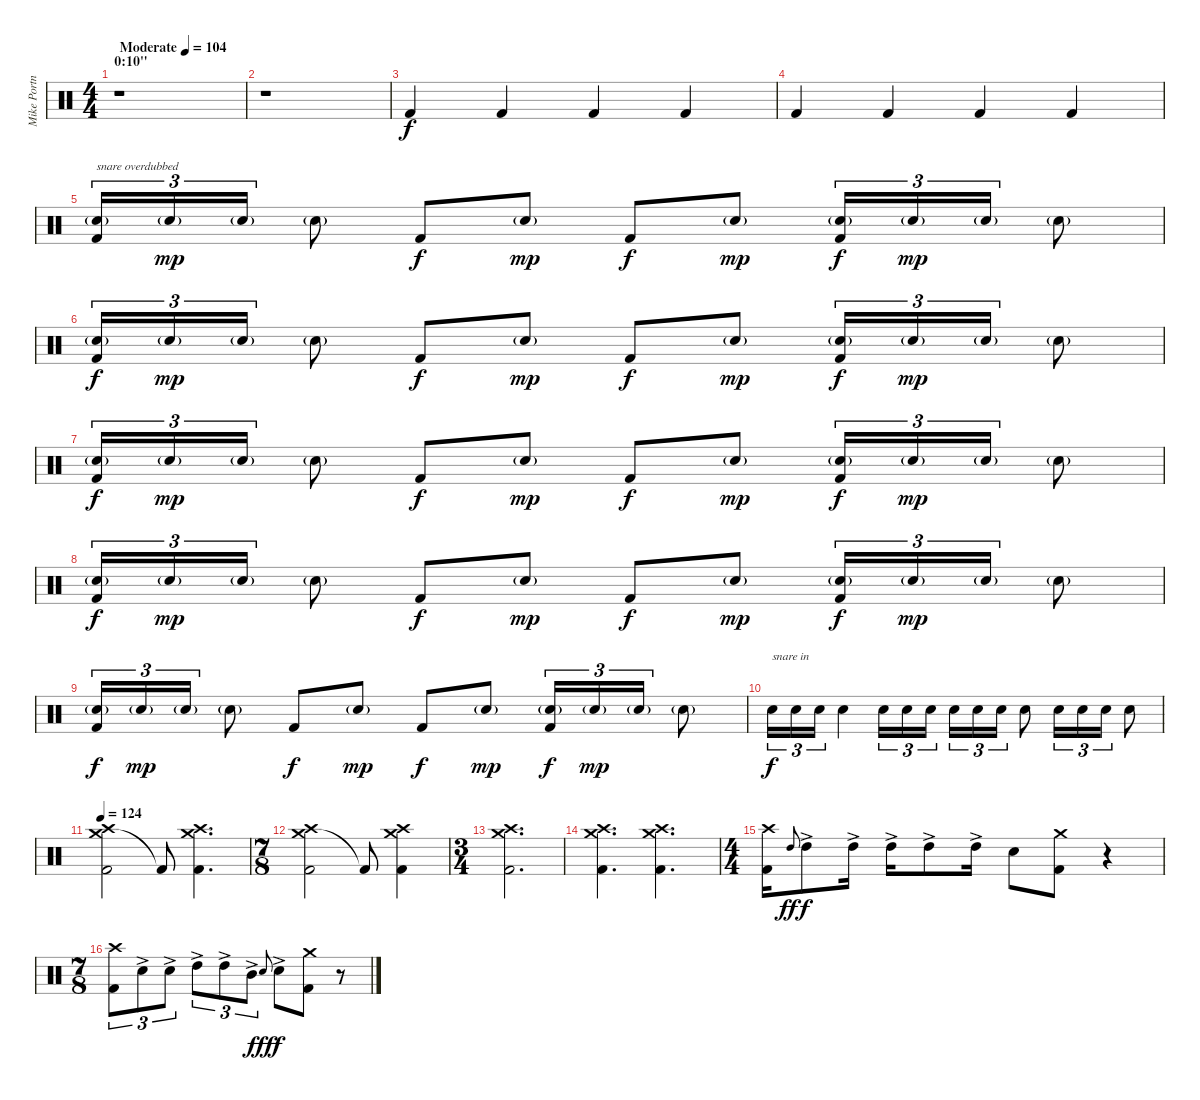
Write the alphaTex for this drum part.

\track ("Mike Portnoy" "Mike Portn") {instrument percussion}
\staff {score}
\articulation defaults
\ts (4 4)
\section ("" "0:10''")
\tempo (104 "Moderate")
\clef neutral
\ks c
r.1{dy f} |
r.1 |
"Kick (hit) 2".4 "Kick (hit) 2".4 "Kick (hit) 2".4 "Kick (hit) 2".4 |
"Kick (hit) 2".4 "Kick (hit) 2".4 "Kick (hit) 2".4 "Kick (hit) 2".4 |
("Snare (hit) 2"{g} "Kick (hit) 2").16{tu (3 2) txt "snare overdubbed"} "Snare (hit) 2"{g}.16{tu (3 2) dy mp} "Snare (hit) 2"{g}.16{tu (3 2)} "Snare (hit) 2"{g}.8 "Kick (hit) 2".8{dy f} "Snare (hit) 2"{g}.8{dy mp} "Kick (hit) 2".8{dy f} "Snare (hit) 2"{g}.8{dy mp} ("Snare (hit) 2"{g} "Kick (hit) 2").16{tu (3 2) dy f} "Snare (hit) 2"{g}.16{tu (3 2) dy mp} "Snare (hit) 2"{g}.16{tu (3 2)} "Snare (hit) 2"{g}.8 |
("Snare (hit) 2"{g} "Kick (hit) 2").16{tu (3 2) dy f} "Snare (hit) 2"{g}.16{tu (3 2) dy mp} "Snare (hit) 2"{g}.16{tu (3 2)} "Snare (hit) 2"{g}.8 "Kick (hit) 2".8{dy f} "Snare (hit) 2"{g}.8{dy mp} "Kick (hit) 2".8{dy f} "Snare (hit) 2"{g}.8{dy mp} ("Snare (hit) 2"{g} "Kick (hit) 2").16{tu (3 2) dy f} "Snare (hit) 2"{g}.16{tu (3 2) dy mp} "Snare (hit) 2"{g}.16{tu (3 2)} "Snare (hit) 2"{g}.8 |
("Snare (hit) 2"{g} "Kick (hit) 2").16{tu (3 2) dy f} "Snare (hit) 2"{g}.16{tu (3 2) dy mp} "Snare (hit) 2"{g}.16{tu (3 2)} "Snare (hit) 2"{g}.8 "Kick (hit) 2".8{dy f} "Snare (hit) 2"{g}.8{dy mp} "Kick (hit) 2".8{dy f} "Snare (hit) 2"{g}.8{dy mp} ("Snare (hit) 2"{g} "Kick (hit) 2").16{tu (3 2) dy f} "Snare (hit) 2"{g}.16{tu (3 2) dy mp} "Snare (hit) 2"{g}.16{tu (3 2)} "Snare (hit) 2"{g}.8 |
("Snare (hit) 2"{g} "Kick (hit) 2").16{tu (3 2) dy f} "Snare (hit) 2"{g}.16{tu (3 2) dy mp} "Snare (hit) 2"{g}.16{tu (3 2)} "Snare (hit) 2"{g}.8 "Kick (hit) 2".8{dy f} "Snare (hit) 2"{g}.8{dy mp} "Kick (hit) 2".8{dy f} "Snare (hit) 2"{g}.8{dy mp} ("Snare (hit) 2"{g} "Kick (hit) 2").16{tu (3 2) dy f} "Snare (hit) 2"{g}.16{tu (3 2) dy mp} "Snare (hit) 2"{g}.16{tu (3 2)} "Snare (hit) 2"{g}.8 |
("Snare (hit) 2"{g} "Kick (hit) 2").16{tu (3 2) dy f} "Snare (hit) 2"{g}.16{tu (3 2) dy mp} "Snare (hit) 2"{g}.16{tu (3 2)} "Snare (hit) 2"{g}.8 "Kick (hit) 2".8{dy f} "Snare (hit) 2"{g}.8{dy mp} "Kick (hit) 2".8{dy f} "Snare (hit) 2"{g}.8{dy mp} ("Snare (hit) 2"{g} "Kick (hit) 2").16{tu (3 2) dy f} "Snare (hit) 2"{g}.16{tu (3 2) dy mp} "Snare (hit) 2"{g}.16{tu (3 2)} "Snare (hit) 2"{g}.8 |
"Electric Snare (hit)".16{tu (3 2) txt "snare in" dy f} "Electric Snare (hit)".16{tu (3 2)} "Electric Snare (hit)".16{tu (3 2)} "Electric Snare (hit)".4 "Electric Snare (hit)".16{tu (3 2)} "Electric Snare (hit)".16{tu (3 2)} "Electric Snare (hit)".16{tu (3 2)} "Electric Snare (hit)".16{tu (3 2)} "Electric Snare (hit)".16{tu (3 2)} "Electric Snare (hit)".16{tu (3 2)} "Electric Snare (hit)".8 "Electric Snare (hit)".16{tu (3 2)} "Electric Snare (hit)".16{tu (3 2)} "Electric Snare (hit)".16{tu (3 2)} "Electric Snare (hit)".8 |
\tempo 124
("Crash medium (hit)" "Crash high (hit)" "Kick (hit) 2").2 "Kick (hit) 2"{t}.8 ("Crash medium (hit)" "Crash high (hit)" "Kick (hit) 2").4{d} |
\ts (7 8)
("Crash medium (hit)" "Crash high (hit)" "Kick (hit) 2").2 "Kick (hit) 2"{t}.8 ("Crash medium (hit)" "Crash high (hit)" "Kick (hit) 2").4 |
\ts (3 4)
("Crash medium (hit)" "Crash high (hit)" "Kick (hit) 2").2{d} |
("Crash medium (hit)" "Crash high (hit)" "Kick (hit) 2").4{d} ("Crash medium (hit)" "Crash high (hit)" "Kick (hit) 2").4{d} |
\ts (4 4)
("Crash high (hit)" "Kick (hit) 2").16 "High Tom (hit)".8{gr onbeat dy ff} "High Tom (hit)"{ac}.8{dy f} "High Tom (hit)"{ac}.16 "High Tom (hit)"{ac}.16 "High Tom (hit)"{ac}.8 "High Tom (hit)"{ac}.16 "Electric Snare (hit)".8 ("Crash medium (hit)" "Kick (hit) 2").8 r.4 |
\ts (7 8)
("Crash high (hit)" "Kick (hit) 2").8{tu (3 2)} "Electric Snare (hit)"{ac}.8{tu (3 2)} "Electric Snare (hit)"{ac}.8{tu (3 2)} "High Tom (hit)"{ac}.8{tu (3 2)} "High Tom (hit)"{ac}.8{tu (3 2)} "Mid Tom (hit)"{ac}.8{tu (3 2)} "Electric Snare (hit)".8{gr onbeat dy fff} "Electric Snare (hit)"{ac}.8{dy f} ("Crash medium (hit)" "Kick (hit) 2").8 r.8
